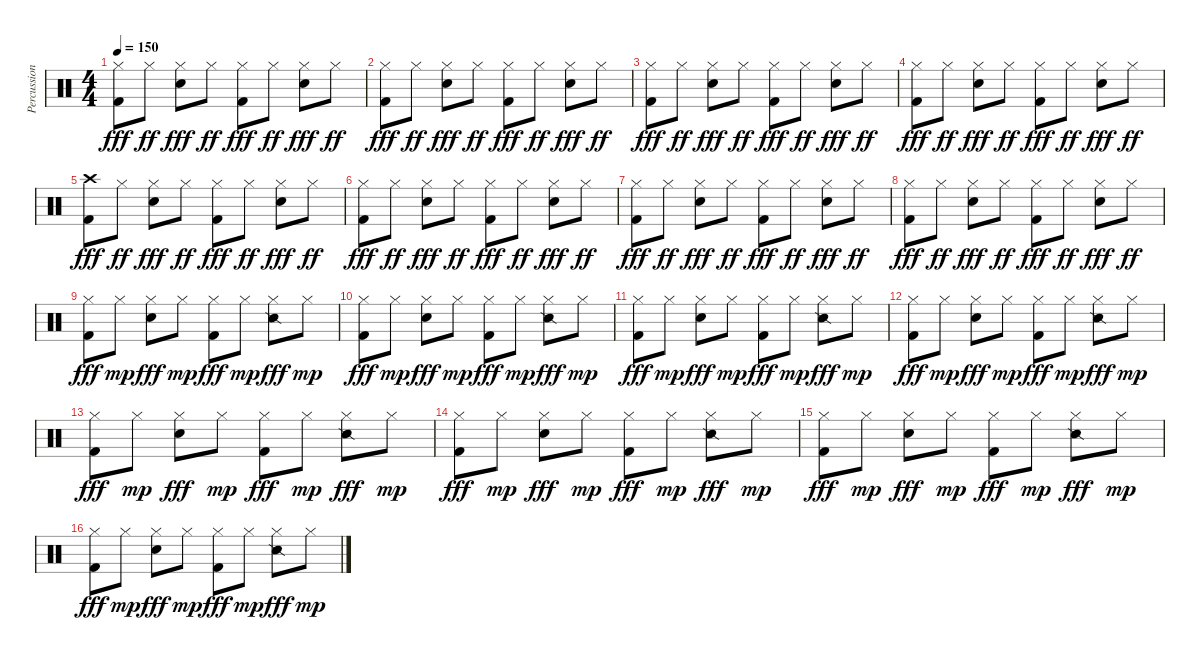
\track ("Percussion" "Percussion") {instrument percussion}
\staff {score}
\articulation defaults
\ts (4 4)
\tempo 150
\clef neutral
\ks c
("Hi-Hat (closed)" "Kick (hit) 2").8{dy fff} "Hi-Hat (closed)".8{dy ff} ("Hi-Hat (closed)" "Snare (hit) 2").8{dy fff} "Hi-Hat (closed)".8{dy ff} ("Hi-Hat (closed)" "Kick (hit) 2").8{dy fff} "Hi-Hat (closed)".8{dy ff} ("Hi-Hat (closed)" "Snare (hit) 2").8{dy fff} "Hi-Hat (closed)".8{dy ff} |
("Hi-Hat (closed)" "Kick (hit) 2").8{dy fff} "Hi-Hat (closed)".8{dy ff} ("Hi-Hat (closed)" "Snare (hit) 2").8{dy fff} "Hi-Hat (closed)".8{dy ff} ("Hi-Hat (closed)" "Kick (hit) 2").8{dy fff} "Hi-Hat (closed)".8{dy ff} ("Hi-Hat (closed)" "Snare (hit) 2").8{dy fff} "Hi-Hat (closed)".8{dy ff} |
("Hi-Hat (closed)" "Kick (hit) 2").8{dy fff} "Hi-Hat (closed)".8{dy ff} ("Hi-Hat (closed)" "Snare (hit) 2").8{dy fff} "Hi-Hat (closed)".8{dy ff} ("Hi-Hat (closed)" "Kick (hit) 2").8{dy fff} "Hi-Hat (closed)".8{dy ff} ("Hi-Hat (closed)" "Snare (hit) 2").8{dy fff} "Hi-Hat (closed)".8{dy ff} |
("Hi-Hat (closed)" "Kick (hit) 2").8{dy fff} "Hi-Hat (closed)".8{dy ff} ("Hi-Hat (closed)" "Snare (hit) 2").8{dy fff} "Hi-Hat (closed)".8{dy ff} ("Hi-Hat (closed)" "Kick (hit) 2").8{dy fff} "Hi-Hat (closed)".8{dy ff} ("Hi-Hat (closed)" "Snare (hit) 2").8{dy fff} "Hi-Hat (closed)".8{dy ff} |
("Crash high (hit)" "Kick (hit) 2").8{dy fff} "Hi-Hat (closed)".8{dy ff} ("Hi-Hat (closed)" "Snare (hit) 2").8{dy fff} "Hi-Hat (closed)".8{dy ff} ("Hi-Hat (closed)" "Kick (hit) 2").8{dy fff} "Hi-Hat (closed)".8{dy ff} ("Hi-Hat (closed)" "Snare (hit) 2").8{dy fff} "Hi-Hat (closed)".8{dy ff} |
("Hi-Hat (closed)" "Kick (hit) 2").8{dy fff} "Hi-Hat (closed)".8{dy ff} ("Hi-Hat (closed)" "Snare (hit) 2").8{dy fff} "Hi-Hat (closed)".8{dy ff} ("Hi-Hat (closed)" "Kick (hit) 2").8{dy fff} "Hi-Hat (closed)".8{dy ff} ("Hi-Hat (closed)" "Snare (hit) 2").8{dy fff} "Hi-Hat (closed)".8{dy ff} |
("Hi-Hat (closed)" "Kick (hit) 2").8{dy fff} "Hi-Hat (closed)".8{dy ff} ("Hi-Hat (closed)" "Snare (hit) 2").8{dy fff} "Hi-Hat (closed)".8{dy ff} ("Hi-Hat (closed)" "Kick (hit) 2").8{dy fff} "Hi-Hat (closed)".8{dy ff} ("Hi-Hat (closed)" "Snare (hit) 2").8{dy fff} "Hi-Hat (closed)".8{dy ff} |
("Hi-Hat (closed)" "Kick (hit) 2").8{dy fff} "Hi-Hat (closed)".8{dy ff} ("Hi-Hat (closed)" "Snare (hit) 2").8{dy fff} "Hi-Hat (closed)".8{dy ff} ("Hi-Hat (closed)" "Kick (hit) 2").8{dy fff} "Hi-Hat (closed)".8{dy ff} ("Hi-Hat (closed)" "Snare (hit) 2").8{dy fff} "Hi-Hat (closed)".8{dy ff} |
("Hi-Hat (closed)" "Kick (hit) 2").8{dy fff} "Hi-Hat (closed)".8{dy mp} ("Hi-Hat (closed)" "Snare (hit) 2").8{dy fff} "Hi-Hat (closed)".8{dy mp} ("Hi-Hat (closed)" "Kick (hit) 2").8{dy fff} "Hi-Hat (closed)".8{dy mp} ("Hi-Hat (closed)" "Snare (side stick) 2").8{dy fff} "Hi-Hat (closed)".8{dy mp} |
("Hi-Hat (closed)" "Kick (hit) 2").8{dy fff} "Hi-Hat (closed)".8{dy mp} ("Hi-Hat (closed)" "Snare (hit) 2").8{dy fff} "Hi-Hat (closed)".8{dy mp} ("Hi-Hat (closed)" "Kick (hit) 2").8{dy fff} "Hi-Hat (closed)".8{dy mp} ("Hi-Hat (closed)" "Snare (side stick) 2").8{dy fff} "Hi-Hat (closed)".8{dy mp} |
("Hi-Hat (closed)" "Kick (hit) 2").8{dy fff} "Hi-Hat (closed)".8{dy mp} ("Hi-Hat (closed)" "Snare (hit) 2").8{dy fff} "Hi-Hat (closed)".8{dy mp} ("Hi-Hat (closed)" "Kick (hit) 2").8{dy fff} "Hi-Hat (closed)".8{dy mp} ("Hi-Hat (closed)" "Snare (side stick) 2").8{dy fff} "Hi-Hat (closed)".8{dy mp} |
("Hi-Hat (closed)" "Kick (hit) 2").8{dy fff} "Hi-Hat (closed)".8{dy mp} ("Hi-Hat (closed)" "Snare (hit) 2").8{dy fff} "Hi-Hat (closed)".8{dy mp} ("Hi-Hat (closed)" "Kick (hit) 2").8{dy fff} "Hi-Hat (closed)".8{dy mp} ("Hi-Hat (closed)" "Snare (side stick) 2").8{dy fff} "Hi-Hat (closed)".8{dy mp} |
("Hi-Hat (closed)" "Kick (hit) 2").8{dy fff} "Hi-Hat (closed)".8{dy mp} ("Hi-Hat (closed)" "Snare (hit) 2").8{dy fff} "Hi-Hat (closed)".8{dy mp} ("Hi-Hat (closed)" "Kick (hit) 2").8{dy fff} "Hi-Hat (closed)".8{dy mp} ("Hi-Hat (closed)" "Snare (side stick) 2").8{dy fff} "Hi-Hat (closed)".8{dy mp} |
("Hi-Hat (closed)" "Kick (hit) 2").8{dy fff} "Hi-Hat (closed)".8{dy mp} ("Hi-Hat (closed)" "Snare (hit) 2").8{dy fff} "Hi-Hat (closed)".8{dy mp} ("Hi-Hat (closed)" "Kick (hit) 2").8{dy fff} "Hi-Hat (closed)".8{dy mp} ("Hi-Hat (closed)" "Snare (side stick) 2").8{dy fff} "Hi-Hat (closed)".8{dy mp} |
("Hi-Hat (closed)" "Kick (hit) 2").8{dy fff} "Hi-Hat (closed)".8{dy mp} ("Hi-Hat (closed)" "Snare (hit) 2").8{dy fff} "Hi-Hat (closed)".8{dy mp} ("Hi-Hat (closed)" "Kick (hit) 2").8{dy fff} "Hi-Hat (closed)".8{dy mp} ("Hi-Hat (closed)" "Snare (side stick) 2").8{dy fff} "Hi-Hat (closed)".8{dy mp} |
("Hi-Hat (closed)" "Kick (hit) 2").8{dy fff} "Hi-Hat (closed)".8{dy mp} ("Hi-Hat (closed)" "Snare (hit) 2").8{dy fff} "Hi-Hat (closed)".8{dy mp} ("Hi-Hat (closed)" "Kick (hit) 2").8{dy fff} "Hi-Hat (closed)".8{dy mp} ("Hi-Hat (closed)" "Snare (side stick) 2").8{dy fff} "Hi-Hat (closed)".8{dy mp}
